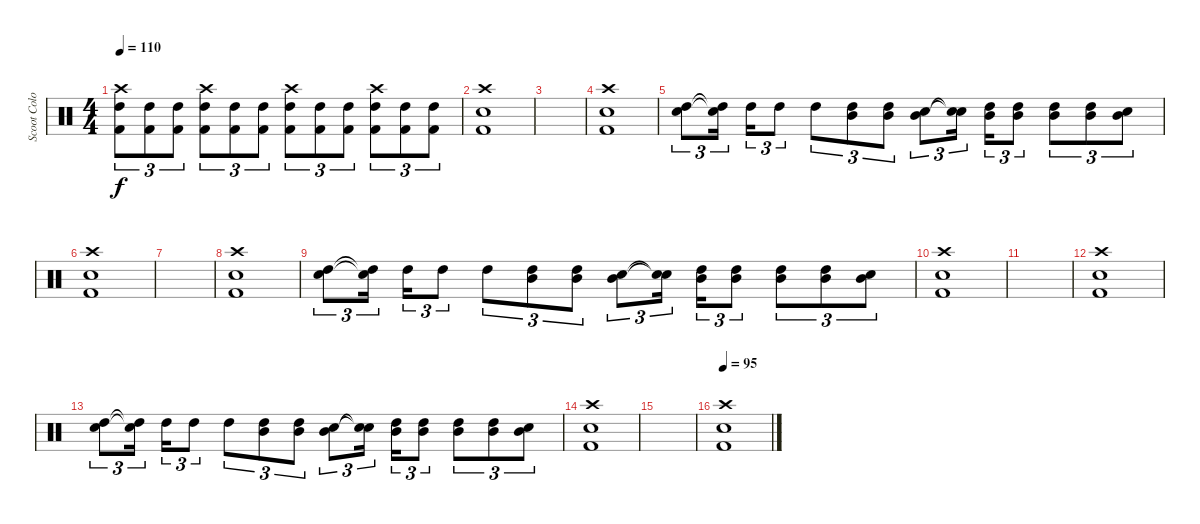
\track ("Scoot Colombus" "Scoot Colo") {instrument percussion}
\staff {score}
\articulation defaults
\ts (4 4)
\tempo 110
\clef neutral
\ks c
("Kick (hit) 2" "High Tom (hit)" "Crash high (hit)").8{tu (3 2) dy f} ("Kick (hit) 2" "High Tom (hit)").8{tu (3 2)} ("Kick (hit) 2" "High Tom (hit)").8{tu (3 2)} ("Kick (hit) 2" "High Tom (hit)" "Crash high (hit)").8{tu (3 2)} ("Kick (hit) 2" "High Tom (hit)").8{tu (3 2)} ("Kick (hit) 2" "High Tom (hit)").8{tu (3 2)} ("Kick (hit) 2" "High Tom (hit)" "Crash high (hit)").8{tu (3 2)} ("Kick (hit) 2" "High Tom (hit)").8{tu (3 2)} ("Kick (hit) 2" "High Tom (hit)").8{tu (3 2)} ("Kick (hit) 2" "High Tom (hit)" "Crash high (hit)").8{tu (3 2)} ("Kick (hit) 2" "High Tom (hit)").8{tu (3 2)} ("Kick (hit) 2" "High Tom (hit)").8{tu (3 2)} |
("Kick (hit) 2" "Snare (hit) 2" "Crash high (hit)").1 |
|
("Kick (hit) 2" "Snare (hit) 2" "Crash high (hit)").1 |
("High Tom (hit)" "Snare (hit) 2").8{tu (3 2)} ("High Tom (hit)"{t} "Snare (hit) 2"{t}).16{tu (3 2) beam splitsecondary} "High Tom (hit)".16{tu (3 2)} "High Tom (hit)".8{tu (3 2)} "High Tom (hit)".8{tu (3 2)} ("High Tom (hit)" "Mid Tom (hit)").8{tu (3 2)} ("High Tom (hit)" "Mid Tom (hit)").8{tu (3 2)} ("Mid Tom (hit)" "Snare (hit) 2").8{tu (3 2)} ("Snare (hit)"{t} "Snare (hit)"{t}).16{tu (3 2) beam splitsecondary} ("Mid Tom (hit)" "High Tom (hit)").16{tu (3 2)} ("Mid Tom (hit)" "High Tom (hit)").8{tu (3 2)} ("Mid Tom (hit)" "High Tom (hit)").8{tu (3 2)} ("Mid Tom (hit)" "High Tom (hit)").8{tu (3 2)} ("Mid Tom (hit)" "Snare (hit) 2").8{tu (3 2)} |
("Kick (hit) 2" "Snare (hit) 2" "Crash high (hit)").1 |
|
("Kick (hit) 2" "Snare (hit) 2" "Crash high (hit)").1 |
("High Tom (hit)" "Snare (hit) 2").8{tu (3 2)} ("High Tom (hit)"{t} "Snare (hit) 2"{t}).16{tu (3 2) beam splitsecondary} "High Tom (hit)".16{tu (3 2)} "High Tom (hit)".8{tu (3 2)} "High Tom (hit)".8{tu (3 2)} ("High Tom (hit)" "Mid Tom (hit)").8{tu (3 2)} ("High Tom (hit)" "Mid Tom (hit)").8{tu (3 2)} ("Mid Tom (hit)" "Snare (hit) 2").8{tu (3 2)} ("Snare (hit)"{t} "Snare (hit)"{t}).16{tu (3 2) beam splitsecondary} ("Mid Tom (hit)" "High Tom (hit)").16{tu (3 2)} ("Mid Tom (hit)" "High Tom (hit)").8{tu (3 2)} ("Mid Tom (hit)" "High Tom (hit)").8{tu (3 2)} ("Mid Tom (hit)" "High Tom (hit)").8{tu (3 2)} ("Mid Tom (hit)" "Snare (hit) 2").8{tu (3 2)} |
("Kick (hit) 2" "Snare (hit) 2" "Crash high (hit)").1 |
|
("Kick (hit) 2" "Snare (hit) 2" "Crash high (hit)").1 |
("High Tom (hit)" "Snare (hit) 2").8{tu (3 2)} ("High Tom (hit)"{t} "Snare (hit) 2"{t}).16{tu (3 2) beam splitsecondary} "High Tom (hit)".16{tu (3 2)} "High Tom (hit)".8{tu (3 2)} "High Tom (hit)".8{tu (3 2)} ("High Tom (hit)" "Mid Tom (hit)").8{tu (3 2)} ("High Tom (hit)" "Mid Tom (hit)").8{tu (3 2)} ("Mid Tom (hit)" "Snare (hit) 2").8{tu (3 2)} ("Snare (hit)"{t} "Snare (hit)"{t}).16{tu (3 2) beam splitsecondary} ("Mid Tom (hit)" "High Tom (hit)").16{tu (3 2)} ("Mid Tom (hit)" "High Tom (hit)").8{tu (3 2)} ("Mid Tom (hit)" "High Tom (hit)").8{tu (3 2)} ("Mid Tom (hit)" "High Tom (hit)").8{tu (3 2)} ("Mid Tom (hit)" "Snare (hit) 2").8{tu (3 2)} |
("Kick (hit) 2" "Snare (hit) 2" "Crash high (hit)").1 |
|
\tempo 95
("Kick (hit) 2" "Snare (hit) 2" "Crash high (hit)").1
